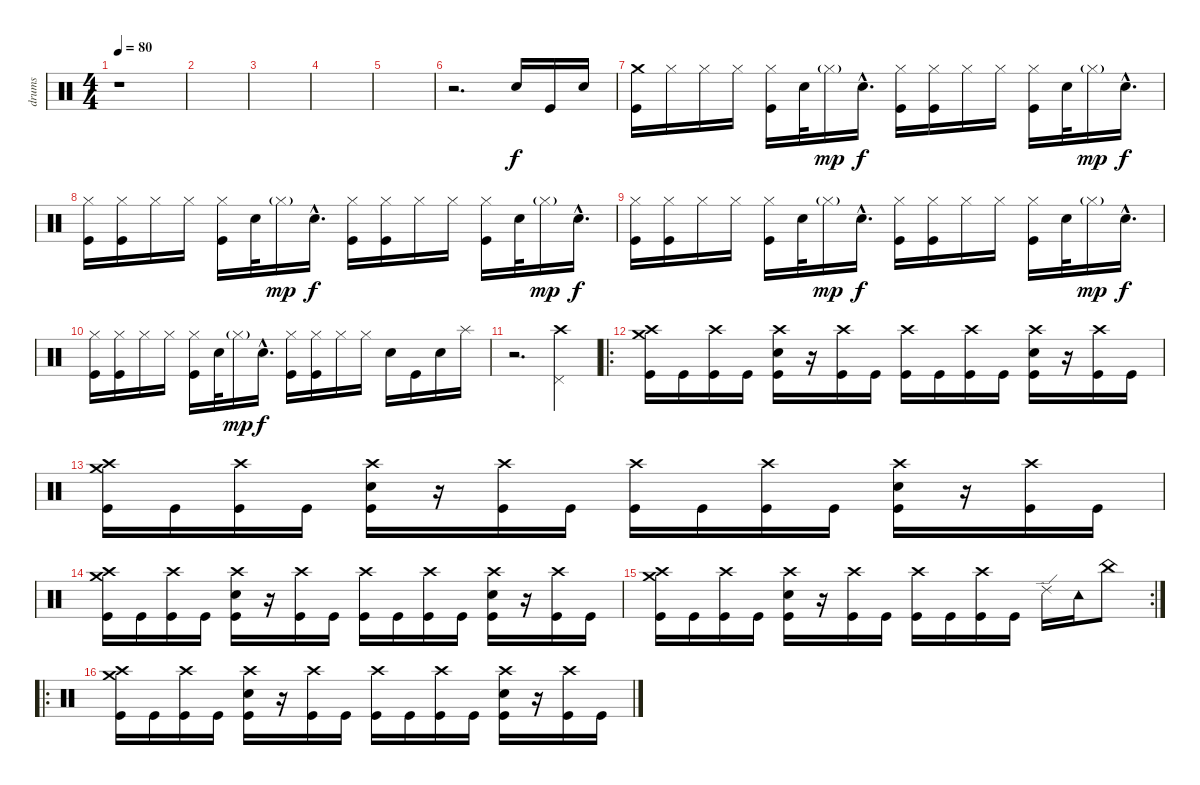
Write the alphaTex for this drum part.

\track ("drums" "drums") {instrument percussion}
\staff {score}
\articulation defaults
\ts (4 4)
\tempo 80
\clef neutral
\ks c
r.1{dy f} |
|
|
|
|
r.2{d} "Snare (hit) 2".16 "Kick (hit)".16 "Snare (hit) 2".16 |
("Crash medium (hit)" "Kick (hit)").16 "Hi-Hat (closed)".16 "Hi-Hat (closed)".16 "Hi-Hat (closed)".16 ("Hi-Hat (closed)" "Kick (hit)").16 "Snare (hit) 2".32 "Hi-Hat (closed)"{g}.16{dy mp} "Snare (hit) 2"{hac}.16{d dy f} ("Hi-Hat (closed)" "Kick (hit)").16 ("Hi-Hat (closed)" "Kick (hit)").16 "Hi-Hat (closed)".16 "Hi-Hat (closed)".16 ("Hi-Hat (closed)" "Kick (hit)").16 "Snare (hit) 2".32 "Hi-Hat (closed)"{g}.16{dy mp} "Snare (hit) 2"{hac}.16{d dy f} |
("Hi-Hat (closed)" "Kick (hit)").16 ("Hi-Hat (closed)" "Kick (hit)").16 "Hi-Hat (closed)".16 "Hi-Hat (closed)".16 ("Hi-Hat (closed)" "Kick (hit)").16 "Snare (hit) 2".32 "Hi-Hat (closed)"{g}.16{dy mp} "Snare (hit) 2"{hac}.16{d dy f} ("Hi-Hat (closed)" "Kick (hit)").16 ("Hi-Hat (closed)" "Kick (hit)").16 "Hi-Hat (closed)".16 "Hi-Hat (closed)".16 ("Hi-Hat (closed)" "Kick (hit)").16 "Snare (hit) 2".32 "Hi-Hat (closed)"{g}.16{dy mp} "Snare (hit) 2"{hac}.16{d dy f} |
("Hi-Hat (closed)" "Kick (hit)").16 ("Hi-Hat (closed)" "Kick (hit)").16 "Hi-Hat (closed)".16 "Hi-Hat (closed)".16 ("Hi-Hat (closed)" "Kick (hit)").16 "Snare (hit) 2".32 "Hi-Hat (closed)"{g}.16{dy mp} "Snare (hit) 2"{hac}.16{d dy f} ("Hi-Hat (closed)" "Kick (hit)").16 ("Hi-Hat (closed)" "Kick (hit)").16 "Hi-Hat (closed)".16 "Hi-Hat (closed)".16 ("Hi-Hat (closed)" "Kick (hit)").16 "Snare (hit) 2".32 "Hi-Hat (closed)"{g}.16{dy mp} "Snare (hit) 2"{hac}.16{d dy f} |
("Hi-Hat (closed)" "Kick (hit)").16 ("Hi-Hat (closed)" "Kick (hit)").16 "Hi-Hat (closed)".16 "Hi-Hat (closed)".16 ("Hi-Hat (closed)" "Kick (hit)").16 "Snare (hit) 2".32 "Hi-Hat (closed)"{g}.16{dy mp} "Snare (hit) 2"{hac}.16{d dy f} ("Hi-Hat (closed)" "Kick (hit)").16 ("Hi-Hat (closed)" "Kick (hit)").16 "Hi-Hat (closed)".16 "Hi-Hat (closed)".16 "Snare (hit) 2".16 "Kick (hit)".16 "Snare (hit) 2".16 "Splash (hit)".16 |
r.2{d} ("Pedal Hi-Hat (hit)" "Crash high (hit)").4 |
\ro
("Crash medium (hit)" "Crash high (hit)" "Kick (hit)").16 "Kick (hit)".16 ("Crash high (hit)" "Kick (hit)").16 "Kick (hit)".16 ("Crash high (hit)" "Snare (hit) 2" "Kick (hit)").16 r.16 ("Crash high (hit)" "Kick (hit)").16 "Kick (hit)".16 ("Crash high (hit)" "Kick (hit)").16 "Kick (hit)".16 ("Crash high (hit)" "Kick (hit)").16 "Kick (hit)".16 ("Crash high (hit)" "Snare (hit) 2" "Kick (hit)").16 r.16 ("Crash high (hit)" "Kick (hit)").16 "Kick (hit)".16 |
("Crash medium (hit)" "Crash high (hit)" "Kick (hit)").16 "Kick (hit)".16 ("Crash high (hit)" "Kick (hit)").16 "Kick (hit)".16 ("Crash high (hit)" "Snare (hit) 2" "Kick (hit)").16 r.16 ("Crash high (hit)" "Kick (hit)").16 "Kick (hit)".16 ("Crash high (hit)" "Kick (hit)").16 "Kick (hit)".16 ("Crash high (hit)" "Kick (hit)").16 "Kick (hit)".16 ("Crash high (hit)" "Snare (hit) 2" "Kick (hit)").16 r.16 ("Crash high (hit)" "Kick (hit)").16 "Kick (hit)".16 |
("Crash medium (hit)" "Crash high (hit)" "Kick (hit)").16 "Kick (hit)".16 ("Crash high (hit)" "Kick (hit)").16 "Kick (hit)".16 ("Crash high (hit)" "Snare (hit) 2" "Kick (hit)").16 r.16 ("Crash high (hit)" "Kick (hit)").16 "Kick (hit)".16 ("Crash high (hit)" "Kick (hit)").16 "Kick (hit)".16 ("Crash high (hit)" "Kick (hit)").16 "Kick (hit)".16 ("Crash high (hit)" "Snare (hit) 2" "Kick (hit)").16 r.16 ("Crash high (hit)" "Kick (hit)").16 "Kick (hit)".16 |
\rc 2
("Crash medium (hit)" "Crash high (hit)" "Kick (hit)").16 "Kick (hit)".16 ("Crash high (hit)" "Kick (hit)").16 "Kick (hit)".16 ("Crash high (hit)" "Snare (hit) 2" "Kick (hit)").16 r.16 ("Crash high (hit)" "Kick (hit)").16 "Kick (hit)".16 ("Crash high (hit)" "Kick (hit)").16 "Kick (hit)".16 ("Crash high (hit)" "Kick (hit)").16 "Kick (hit)".16 "Ride (edge) 2".16 "Tambourine (hit)".16 "China (hit)".8 |
\ro
("Crash medium (hit)" "Crash high (hit)" "Kick (hit)").16 "Kick (hit)".16 ("Crash high (hit)" "Kick (hit)").16 "Kick (hit)".16 ("Crash high (hit)" "Snare (hit) 2" "Kick (hit)").16 r.16 ("Crash high (hit)" "Kick (hit)").16 "Kick (hit)".16 ("Crash high (hit)" "Kick (hit)").16 "Kick (hit)".16 ("Crash high (hit)" "Kick (hit)").16 "Kick (hit)".16 ("Crash high (hit)" "Snare (hit) 2" "Kick (hit)").16 r.16 ("Crash high (hit)" "Kick (hit)").16 "Kick (hit)".16
